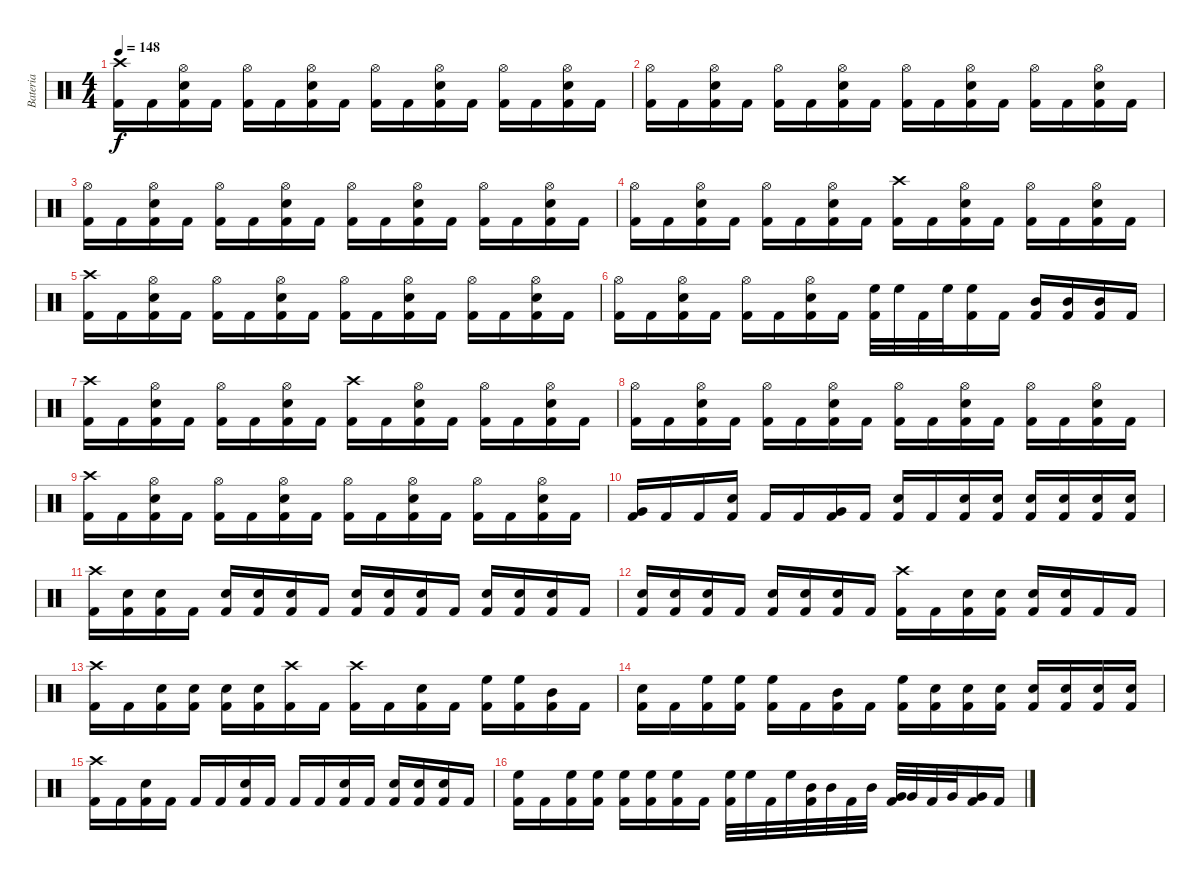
\track ("Bateria" "Bateria") {instrument percussion}
\staff {score}
\articulation defaults
\ts (4 4)
\tempo 148
\clef neutral
\ks c
("Kick (hit) 2" "Crash high (hit)").16{dy f} "Kick (hit) 2".16 ("Kick (hit) 2" "Hi-Hat (open)" "Snare (hit) 2").16 "Kick (hit) 2".16 ("Kick (hit) 2" "Hi-Hat (open)").16 "Kick (hit) 2".16 ("Kick (hit) 2" "Hi-Hat (open)" "Snare (hit) 2").16 "Kick (hit) 2".16 ("Kick (hit) 2" "Hi-Hat (open)").16 "Kick (hit) 2".16 ("Kick (hit) 2" "Hi-Hat (open)" "Snare (hit) 2").16 "Kick (hit) 2".16 ("Kick (hit) 2" "Hi-Hat (open)").16 "Kick (hit) 2".16 ("Kick (hit) 2" "Hi-Hat (open)" "Snare (hit) 2").16 "Kick (hit) 2".16 |
("Kick (hit) 2" "Hi-Hat (open)").16 "Kick (hit) 2".16 ("Kick (hit) 2" "Hi-Hat (open)" "Snare (hit) 2").16 "Kick (hit) 2".16 ("Kick (hit) 2" "Hi-Hat (open)").16 "Kick (hit) 2".16 ("Kick (hit) 2" "Hi-Hat (open)" "Snare (hit) 2").16 "Kick (hit) 2".16 ("Kick (hit) 2" "Hi-Hat (open)").16 "Kick (hit) 2".16 ("Kick (hit) 2" "Hi-Hat (open)" "Snare (hit) 2").16 "Kick (hit) 2".16 ("Kick (hit) 2" "Hi-Hat (open)").16 "Kick (hit) 2".16 ("Kick (hit) 2" "Hi-Hat (open)" "Snare (hit) 2").16 "Kick (hit) 2".16 |
("Kick (hit) 2" "Hi-Hat (open)").16 "Kick (hit) 2".16 ("Kick (hit) 2" "Hi-Hat (open)" "Snare (hit) 2").16 "Kick (hit) 2".16 ("Kick (hit) 2" "Hi-Hat (open)").16 "Kick (hit) 2".16 ("Kick (hit) 2" "Hi-Hat (open)" "Snare (hit) 2").16 "Kick (hit) 2".16 ("Kick (hit) 2" "Hi-Hat (open)").16 "Kick (hit) 2".16 ("Kick (hit) 2" "Hi-Hat (open)" "Snare (hit) 2").16 "Kick (hit) 2".16 ("Kick (hit) 2" "Hi-Hat (open)").16 "Kick (hit) 2".16 ("Kick (hit) 2" "Hi-Hat (open)" "Snare (hit) 2").16 "Kick (hit) 2".16 |
("Kick (hit) 2" "Hi-Hat (open)").16 "Kick (hit) 2".16 ("Kick (hit) 2" "Hi-Hat (open)" "Snare (hit) 2").16 "Kick (hit) 2".16 ("Kick (hit) 2" "Hi-Hat (open)").16 "Kick (hit) 2".16 ("Kick (hit) 2" "Hi-Hat (open)" "Snare (hit) 2").16 "Kick (hit) 2".16 ("Kick (hit) 2" "Crash high (hit)").16 "Kick (hit) 2".16 ("Kick (hit) 2" "Hi-Hat (open)" "Snare (hit) 2").16 "Kick (hit) 2".16 ("Kick (hit) 2" "Hi-Hat (open)").16 "Kick (hit) 2".16 ("Kick (hit) 2" "Hi-Hat (open)" "Snare (hit) 2").16 "Kick (hit) 2".16 |
("Kick (hit) 2" "Crash high (hit)").16 "Kick (hit) 2".16 ("Kick (hit) 2" "Hi-Hat (open)" "Snare (hit) 2").16 "Kick (hit) 2".16 ("Kick (hit) 2" "Hi-Hat (open)").16 "Kick (hit) 2".16 ("Kick (hit) 2" "Hi-Hat (open)" "Snare (hit) 2").16 "Kick (hit) 2".16 ("Kick (hit) 2" "Hi-Hat (open)").16 "Kick (hit) 2".16 ("Kick (hit) 2" "Hi-Hat (open)" "Snare (hit) 2").16 "Kick (hit) 2".16 ("Kick (hit) 2" "Hi-Hat (open)").16 "Kick (hit) 2".16 ("Kick (hit) 2" "Hi-Hat (open)" "Snare (hit) 2").16 "Kick (hit) 2".16 |
("Kick (hit) 2" "Hi-Hat (open)").16 "Kick (hit) 2".16 ("Kick (hit) 2" "Hi-Hat (open)" "Snare (hit) 2").16 "Kick (hit) 2".16 ("Kick (hit) 2" "Hi-Hat (open)").16 "Kick (hit) 2".16 ("Kick (hit) 2" "Hi-Hat (open)" "Snare (hit) 2").16 "Kick (hit) 2".16 ("Kick (hit) 2" "High Floor Tom (hit)").32 "High Floor Tom (hit)".32 "Kick (hit) 2".32 "High Floor Tom (hit)".32 ("Kick (hit) 2" "High Floor Tom (hit)").16 "Kick (hit) 2".16 ("Kick (hit) 2" "Mid Tom (hit)").16 ("Kick (hit) 2" "Mid Tom (hit)").16 ("Kick (hit) 2" "Mid Tom (hit)").16 "Kick (hit) 2".16 |
("Kick (hit) 2" "Crash high (hit)").16 "Kick (hit) 2".16 ("Kick (hit) 2" "Hi-Hat (open)" "Snare (hit) 2").16 "Kick (hit) 2".16 ("Kick (hit) 2" "Hi-Hat (open)").16 "Kick (hit) 2".16 ("Kick (hit) 2" "Hi-Hat (open)" "Snare (hit) 2").16 "Kick (hit) 2".16 ("Kick (hit) 2" "Crash high (hit)").16 "Kick (hit) 2".16 ("Kick (hit) 2" "Hi-Hat (open)" "Snare (hit) 2").16 "Kick (hit) 2".16 ("Kick (hit) 2" "Hi-Hat (open)").16 "Kick (hit) 2".16 ("Kick (hit) 2" "Hi-Hat (open)" "Snare (hit) 2").16 "Kick (hit) 2".16 |
("Kick (hit) 2" "Hi-Hat (open)").16 "Kick (hit) 2".16 ("Kick (hit) 2" "Hi-Hat (open)" "Snare (hit) 2").16 "Kick (hit) 2".16 ("Kick (hit) 2" "Hi-Hat (open)").16 "Kick (hit) 2".16 ("Kick (hit) 2" "Hi-Hat (open)" "Snare (hit) 2").16 "Kick (hit) 2".16 ("Kick (hit) 2" "Hi-Hat (open)").16 "Kick (hit) 2".16 ("Kick (hit) 2" "Hi-Hat (open)" "Snare (hit) 2").16 "Kick (hit) 2".16 ("Kick (hit) 2" "Hi-Hat (open)").16 "Kick (hit) 2".16 ("Kick (hit) 2" "Hi-Hat (open)" "Snare (hit) 2").16 "Kick (hit) 2".16 |
("Kick (hit) 2" "Crash high (hit)").16 "Kick (hit) 2".16 ("Kick (hit) 2" "Hi-Hat (open)" "Snare (hit) 2").16 "Kick (hit) 2".16 ("Kick (hit) 2" "Hi-Hat (open)").16 "Kick (hit) 2".16 ("Kick (hit) 2" "Hi-Hat (open)" "Snare (hit) 2").16 "Kick (hit) 2".16 ("Kick (hit) 2" "Hi-Hat (open)").16 "Kick (hit) 2".16 ("Kick (hit) 2" "Hi-Hat (open)" "Snare (hit) 2").16 "Kick (hit) 2".16 ("Kick (hit) 2" "Hi-Hat (open)").16 "Kick (hit) 2".16 ("Kick (hit) 2" "Hi-Hat (open)" "Snare (hit) 2").16 "Kick (hit) 2".16 |
("Kick (hit) 2" "Very Low Tom (hit)").16 "Kick (hit) 2".16 "Kick (hit) 2".16 ("Kick (hit) 2" "Snare (hit) 2").16 "Kick (hit) 2".16 "Kick (hit) 2".16 ("Kick (hit) 2" "Very Low Tom (hit)").16 "Kick (hit) 2".16 ("Kick (hit) 2" "Snare (hit) 2").16 "Kick (hit) 2".16 ("Kick (hit) 2" "Snare (hit) 2").16 ("Kick (hit) 2" "Snare (hit) 2").16 ("Kick (hit) 2" "Snare (hit) 2").16 ("Kick (hit) 2" "Snare (hit) 2").16 ("Kick (hit) 2" "Snare (hit) 2").16 ("Kick (hit) 2" "Snare (hit) 2").16 |
("Kick (hit) 2" "Crash high (hit)").16 ("Kick (hit) 2" "Snare (hit) 2").16 ("Kick (hit) 2" "Snare (hit) 2").16 "Kick (hit) 2".16 ("Kick (hit) 2" "Snare (hit) 2").16 ("Kick (hit) 2" "Snare (hit) 2").16 ("Kick (hit) 2" "Snare (hit) 2").16 "Kick (hit) 2".16 ("Kick (hit) 2" "Snare (hit) 2").16 ("Kick (hit) 2" "Snare (hit) 2").16 ("Kick (hit) 2" "Snare (hit) 2").16 "Kick (hit) 2".16 ("Kick (hit) 2" "Snare (hit) 2").16 ("Kick (hit) 2" "Snare (hit) 2").16 ("Kick (hit) 2" "Snare (hit) 2").16 "Kick (hit) 2".16 |
("Kick (hit) 2" "Snare (hit) 2").16 ("Kick (hit) 2" "Snare (hit) 2").16 ("Kick (hit) 2" "Snare (hit) 2").16 "Kick (hit) 2".16 ("Kick (hit) 2" "Snare (hit) 2").16 ("Kick (hit) 2" "Snare (hit) 2").16 ("Kick (hit) 2" "Snare (hit) 2").16 "Kick (hit) 2".16 ("Kick (hit) 2" "Crash high (hit)").16 "Kick (hit) 2".16 ("Kick (hit) 2" "Snare (hit) 2").16 ("Kick (hit) 2" "Snare (hit) 2").16 ("Kick (hit) 2" "Snare (hit) 2").16 ("Kick (hit) 2" "Snare (hit) 2").16 "Kick (hit) 2".16 "Kick (hit) 2".16 |
("Kick (hit) 2" "Crash high (hit)").16 "Kick (hit) 2".16 ("Kick (hit) 2" "Snare (hit) 2").16 ("Kick (hit) 2" "Snare (hit) 2").16 ("Kick (hit) 2" "Snare (hit) 2").16 ("Kick (hit) 2" "Snare (hit) 2").16 ("Kick (hit) 2" "Crash high (hit)").16 "Kick (hit) 2".16 ("Crash high (hit)" "Kick (hit) 2").16 "Kick (hit) 2".16 ("Snare (hit) 2" "Kick (hit) 2").16 "Kick (hit) 2".16 ("High Floor Tom (hit)" "Kick (hit) 2").16 ("High Floor Tom (hit)" "Kick (hit) 2").16 ("Mid Tom (hit)" "Kick (hit) 2").16 "Kick (hit) 2".16 |
("Kick (hit) 2" "Snare (hit) 2").16 "Kick (hit) 2".16 ("Kick (hit) 2" "High Floor Tom (hit)").16 ("Kick (hit) 2" "High Floor Tom (hit)").16 ("Kick (hit) 2" "High Floor Tom (hit)").16 "Kick (hit) 2".16 ("Kick (hit) 2" "Mid Tom (hit)").16 "Kick (hit) 2".16 ("Kick (hit) 2" "High Floor Tom (hit)").16 ("Kick (hit) 2" "Snare (hit) 2").16 ("Kick (hit) 2" "Snare (hit) 2").16 ("Kick (hit) 2" "Snare (hit) 2").16 ("Kick (hit) 2" "Snare (hit) 2").16 ("Kick (hit) 2" "Snare (hit) 2").16 ("Kick (hit) 2" "Snare (hit) 2").16 ("Kick (hit) 2" "Snare (hit) 2").16 |
("Kick (hit) 2" "Crash high (hit)").16 "Kick (hit) 2".16 ("Kick (hit) 2" "Snare (hit) 2").16 "Kick (hit) 2".16 "Kick (hit) 2".16 "Kick (hit) 2".16 ("Kick (hit) 2" "Snare (hit) 2").16 "Kick (hit) 2".16 "Kick (hit) 2".16 "Kick (hit) 2".16 ("Kick (hit) 2" "Snare (hit) 2").16 "Kick (hit) 2".16 ("Kick (hit) 2" "Snare (hit) 2").16 ("Kick (hit) 2" "Snare (hit) 2").16 ("Kick (hit) 2" "Snare (hit) 2").16 "Kick (hit) 2".16 |
("Kick (hit) 2" "High Floor Tom (hit)").16 "Kick (hit) 2".16 ("Kick (hit) 2" "High Floor Tom (hit)").16 ("Kick (hit) 2" "High Floor Tom (hit)").16 ("Kick (hit) 2" "High Floor Tom (hit)").16 ("Kick (hit) 2" "High Floor Tom (hit)").16 ("Kick (hit) 2" "High Floor Tom (hit)").16 "Kick (hit) 2".16 ("Kick (hit) 2" "High Floor Tom (hit)").32 "High Floor Tom (hit)".32 "Kick (hit) 2".32 "High Floor Tom (hit)".32 ("Kick (hit) 2" "Mid Tom (hit)").32 "Mid Tom (hit)".32 "Kick (hit) 2".32 "Mid Tom (hit)".32 ("Kick (hit) 2" "Very Low Tom (hit)").32 "Very Low Tom (hit)".32 "Kick (hit) 2".32 "Very Low Tom (hit)".32 ("Kick (hit) 2" "Very Low Tom (hit)").16 "Kick (hit) 2".16
